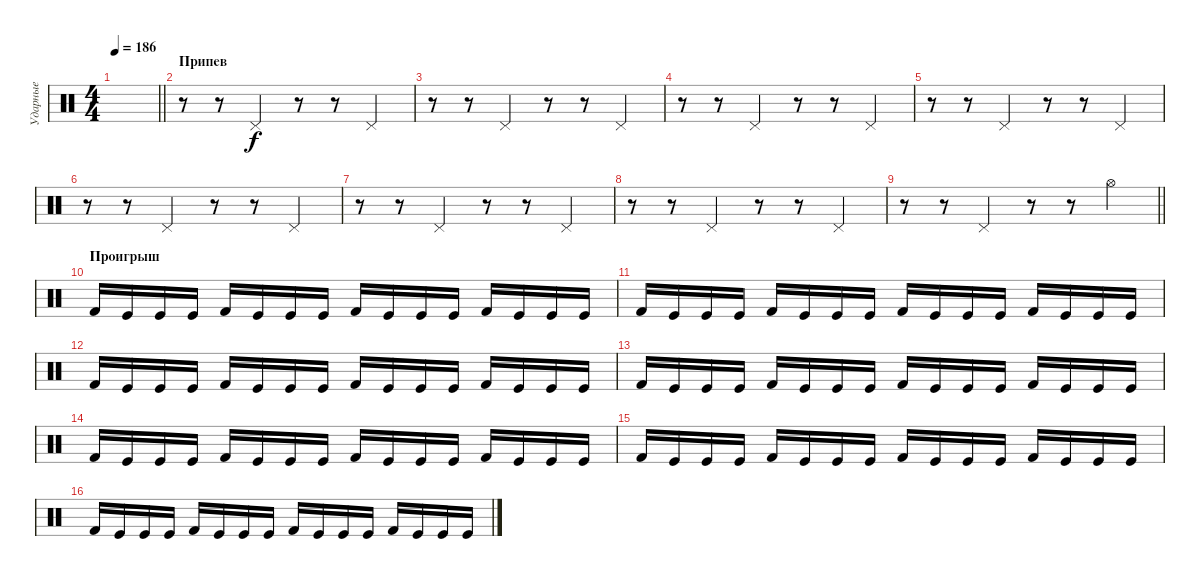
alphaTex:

\track ("Ударные" "Ударные") {instrument percussion}
\staff {score}
\articulation defaults
\ts (4 4)
\tempo 186
\clef neutral
\barLineRight lightlight
\ks c
|
\section ("" "Припев")
r.8 r.8 "Pedal Hi-Hat (hit)".4 r.8 r.8 "Pedal Hi-Hat (hit)".4 |
r.8 r.8 "Pedal Hi-Hat (hit)".4 r.8 r.8 "Pedal Hi-Hat (hit)".4 |
r.8 r.8 "Pedal Hi-Hat (hit)".4 r.8 r.8 "Pedal Hi-Hat (hit)".4 |
r.8 r.8 "Pedal Hi-Hat (hit)".4 r.8 r.8 "Pedal Hi-Hat (hit)".4 |
r.8 r.8 "Pedal Hi-Hat (hit)".4 r.8 r.8 "Pedal Hi-Hat (hit)".4 |
r.8 r.8 "Pedal Hi-Hat (hit)".4 r.8 r.8 "Pedal Hi-Hat (hit)".4 |
r.8 r.8 "Pedal Hi-Hat (hit)".4 r.8 r.8 "Pedal Hi-Hat (hit)".4 |
\barLineRight lightlight
r.8 r.8 "Pedal Hi-Hat (hit)".4 r.8 r.8 "Hi-Hat (open)".4 |
\section ("" "Проигрыш")
"Kick (hit) 2".16 "Kick (hit)".16 "Kick (hit)".16 "Kick (hit)".16 "Kick (hit) 2".16 "Kick (hit)".16 "Kick (hit)".16 "Kick (hit)".16 "Kick (hit) 2".16 "Kick (hit)".16 "Kick (hit)".16 "Kick (hit)".16 "Kick (hit) 2".16 "Kick (hit)".16 "Kick (hit)".16 "Kick (hit)".16 |
"Kick (hit) 2".16 "Kick (hit)".16 "Kick (hit)".16 "Kick (hit)".16 "Kick (hit) 2".16 "Kick (hit)".16 "Kick (hit)".16 "Kick (hit)".16 "Kick (hit) 2".16 "Kick (hit)".16 "Kick (hit)".16 "Kick (hit)".16 "Kick (hit) 2".16 "Kick (hit)".16 "Kick (hit)".16 "Kick (hit)".16 |
"Kick (hit) 2".16 "Kick (hit)".16 "Kick (hit)".16 "Kick (hit)".16 "Kick (hit) 2".16 "Kick (hit)".16 "Kick (hit)".16 "Kick (hit)".16 "Kick (hit) 2".16 "Kick (hit)".16 "Kick (hit)".16 "Kick (hit)".16 "Kick (hit) 2".16 "Kick (hit)".16 "Kick (hit)".16 "Kick (hit)".16 |
"Kick (hit) 2".16 "Kick (hit)".16 "Kick (hit)".16 "Kick (hit)".16 "Kick (hit) 2".16 "Kick (hit)".16 "Kick (hit)".16 "Kick (hit)".16 "Kick (hit) 2".16 "Kick (hit)".16 "Kick (hit)".16 "Kick (hit)".16 "Kick (hit) 2".16 "Kick (hit)".16 "Kick (hit)".16 "Kick (hit)".16 |
"Kick (hit) 2".16 "Kick (hit)".16 "Kick (hit)".16 "Kick (hit)".16 "Kick (hit) 2".16 "Kick (hit)".16 "Kick (hit)".16 "Kick (hit)".16 "Kick (hit) 2".16 "Kick (hit)".16 "Kick (hit)".16 "Kick (hit)".16 "Kick (hit) 2".16 "Kick (hit)".16 "Kick (hit)".16 "Kick (hit)".16 |
"Kick (hit) 2".16 "Kick (hit)".16 "Kick (hit)".16 "Kick (hit)".16 "Kick (hit) 2".16 "Kick (hit)".16 "Kick (hit)".16 "Kick (hit)".16 "Kick (hit) 2".16 "Kick (hit)".16 "Kick (hit)".16 "Kick (hit)".16 "Kick (hit) 2".16 "Kick (hit)".16 "Kick (hit)".16 "Kick (hit)".16 |
"Kick (hit) 2".16 "Kick (hit)".16 "Kick (hit)".16 "Kick (hit)".16 "Kick (hit) 2".16 "Kick (hit)".16 "Kick (hit)".16 "Kick (hit)".16 "Kick (hit) 2".16 "Kick (hit)".16 "Kick (hit)".16 "Kick (hit)".16 "Kick (hit) 2".16 "Kick (hit)".16 "Kick (hit)".16 "Kick (hit)".16
